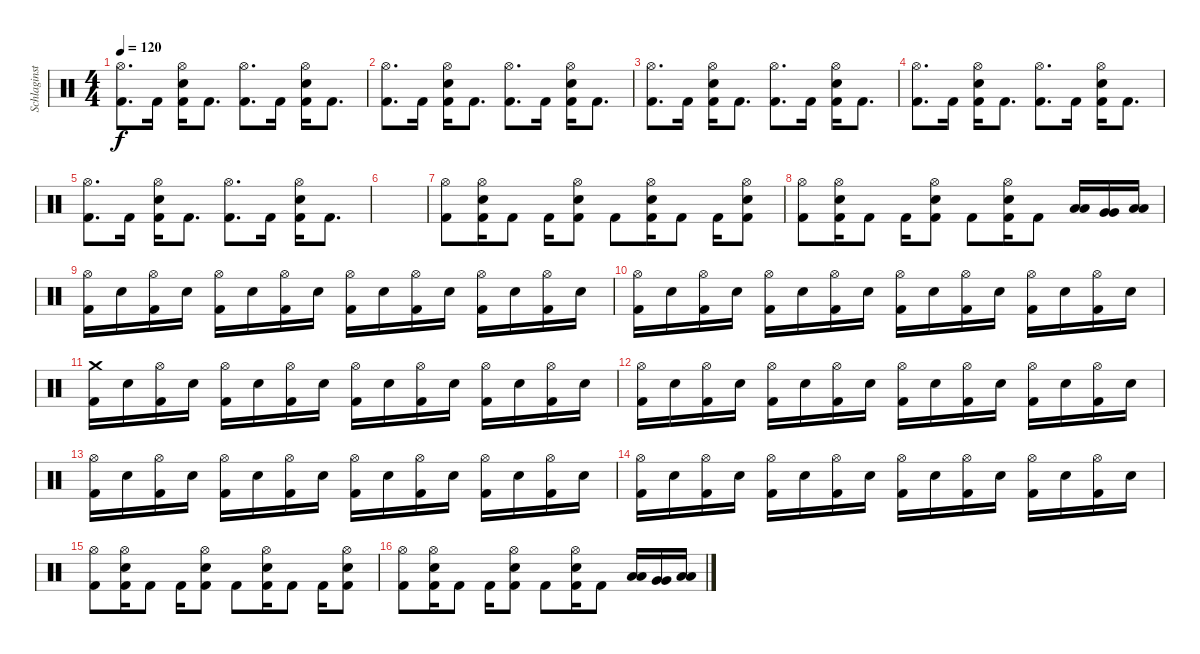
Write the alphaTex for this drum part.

\track ("Schlaginstrumente - Auswahl" "Schlaginst") {instrument percussion}
\staff {score}
\articulation defaults
\ts (4 4)
\tempo 120
\clef neutral
\ks c
("Hi-Hat (open)" "Kick (hit) 2").8{d dy f} "Kick (hit) 2".16 ("Hi-Hat (open)" "Electric Snare (hit)" "Kick (hit) 2").16 "Kick (hit) 2".8{d} ("Hi-Hat (open)" "Kick (hit) 2").8{d} "Kick (hit) 2".16 ("Hi-Hat (open)" "Electric Snare (hit)" "Kick (hit) 2").16 "Kick (hit) 2".8{d} |
("Hi-Hat (open)" "Kick (hit) 2").8{d} "Kick (hit) 2".16 ("Hi-Hat (open)" "Electric Snare (hit)" "Kick (hit) 2").16 "Kick (hit) 2".8{d} ("Hi-Hat (open)" "Kick (hit) 2").8{d} "Kick (hit) 2".16 ("Hi-Hat (open)" "Electric Snare (hit)" "Kick (hit) 2").16 "Kick (hit) 2".8{d} |
("Hi-Hat (open)" "Kick (hit) 2").8{d} "Kick (hit) 2".16 ("Hi-Hat (open)" "Electric Snare (hit)" "Kick (hit) 2").16 "Kick (hit) 2".8{d} ("Hi-Hat (open)" "Kick (hit) 2").8{d} "Kick (hit) 2".16 ("Hi-Hat (open)" "Electric Snare (hit)" "Kick (hit) 2").16 "Kick (hit) 2".8{d} |
("Hi-Hat (open)" "Kick (hit) 2").8{d} "Kick (hit) 2".16 ("Hi-Hat (open)" "Electric Snare (hit)" "Kick (hit) 2").16 "Kick (hit) 2".8{d} ("Hi-Hat (open)" "Kick (hit) 2").8{d} "Kick (hit) 2".16 ("Hi-Hat (open)" "Electric Snare (hit)" "Kick (hit) 2").16 "Kick (hit) 2".8{d} |
("Hi-Hat (open)" "Kick (hit) 2").8{d} "Kick (hit) 2".16 ("Hi-Hat (open)" "Electric Snare (hit)" "Kick (hit) 2").16 "Kick (hit) 2".8{d} ("Hi-Hat (open)" "Kick (hit) 2").8{d} "Kick (hit) 2".16 ("Hi-Hat (open)" "Electric Snare (hit)" "Kick (hit) 2").16 "Kick (hit) 2".8{d} |
|
("Hi-Hat (open)" "Kick (hit) 2").8 ("Hi-Hat (open)" "Electric Snare (hit)" "Kick (hit) 2").16 "Kick (hit) 2".8 "Kick (hit) 2".16 ("Hi-Hat (open)" "Electric Snare (hit)" "Kick (hit) 2").8 "Kick (hit) 2".8 ("Hi-Hat (open)" "Electric Snare (hit)" "Kick (hit) 2").16 "Kick (hit) 2".8 "Kick (hit) 2".16 ("Hi-Hat (open)" "Electric Snare (hit)" "Kick (hit) 2").8 |
("Hi-Hat (open)" "Kick (hit) 2").8 ("Hi-Hat (open)" "Electric Snare (hit)" "Kick (hit) 2").16 "Kick (hit) 2".8 "Kick (hit) 2".16 ("Hi-Hat (open)" "Electric Snare (hit)" "Kick (hit) 2").8 "Kick (hit) 2".8 ("Hi-Hat (open)" "Electric Snare (hit)" "Kick (hit) 2").16 "Kick (hit) 2".8 ("Low Tom (hit)" "Low Tom (hit)").16 ("Very Low Tom (hit)" "Very Low Tom (hit)").16 ("Low Floor Tom (hit)" "Low Floor Tom (hit)").16 |
("Hi-Hat (open)" "Kick (hit) 2").16 "Electric Snare (hit)".16 ("Hi-Hat (open)" "Kick (hit) 2").16 "Electric Snare (hit)".16 ("Hi-Hat (open)" "Kick (hit) 2").16 "Electric Snare (hit)".16 ("Hi-Hat (open)" "Kick (hit) 2").16 "Electric Snare (hit)".16 ("Hi-Hat (open)" "Kick (hit) 2").16 "Electric Snare (hit)".16 ("Hi-Hat (open)" "Kick (hit) 2").16 "Electric Snare (hit)".16 ("Hi-Hat (open)" "Kick (hit) 2").16 "Electric Snare (hit)".16 ("Hi-Hat (open)" "Kick (hit) 2").16 "Electric Snare (hit)".16 |
("Hi-Hat (open)" "Kick (hit) 2").16 "Electric Snare (hit)".16 ("Hi-Hat (open)" "Kick (hit) 2").16 "Electric Snare (hit)".16 ("Hi-Hat (open)" "Kick (hit) 2").16 "Electric Snare (hit)".16 ("Hi-Hat (open)" "Kick (hit) 2").16 "Electric Snare (hit)".16 ("Hi-Hat (open)" "Kick (hit) 2").16 "Electric Snare (hit)".16 ("Hi-Hat (open)" "Kick (hit) 2").16 "Electric Snare (hit)".16 ("Hi-Hat (open)" "Kick (hit) 2").16 "Electric Snare (hit)".16 ("Hi-Hat (open)" "Kick (hit) 2").16 "Electric Snare (hit)".16 |
("Crash medium (hit)" "Kick (hit) 2").16 "Electric Snare (hit)".16 ("Hi-Hat (open)" "Kick (hit) 2").16 "Electric Snare (hit)".16 ("Hi-Hat (open)" "Kick (hit) 2").16 "Electric Snare (hit)".16 ("Hi-Hat (open)" "Kick (hit) 2").16 "Electric Snare (hit)".16 ("Hi-Hat (open)" "Kick (hit) 2").16 "Electric Snare (hit)".16 ("Hi-Hat (open)" "Kick (hit) 2").16 "Electric Snare (hit)".16 ("Hi-Hat (open)" "Kick (hit) 2").16 "Electric Snare (hit)".16 ("Hi-Hat (open)" "Kick (hit) 2").16 "Electric Snare (hit)".16 |
("Hi-Hat (open)" "Kick (hit) 2").16 "Electric Snare (hit)".16 ("Hi-Hat (open)" "Kick (hit) 2").16 "Electric Snare (hit)".16 ("Hi-Hat (open)" "Kick (hit) 2").16 "Electric Snare (hit)".16 ("Hi-Hat (open)" "Kick (hit) 2").16 "Electric Snare (hit)".16 ("Hi-Hat (open)" "Kick (hit) 2").16 "Electric Snare (hit)".16 ("Hi-Hat (open)" "Kick (hit) 2").16 "Electric Snare (hit)".16 ("Hi-Hat (open)" "Kick (hit) 2").16 "Electric Snare (hit)".16 ("Hi-Hat (open)" "Kick (hit) 2").16 "Electric Snare (hit)".16 |
("Hi-Hat (open)" "Kick (hit) 2").16 "Electric Snare (hit)".16 ("Hi-Hat (open)" "Kick (hit) 2").16 "Electric Snare (hit)".16 ("Hi-Hat (open)" "Kick (hit) 2").16 "Electric Snare (hit)".16 ("Hi-Hat (open)" "Kick (hit) 2").16 "Electric Snare (hit)".16 ("Hi-Hat (open)" "Kick (hit) 2").16 "Electric Snare (hit)".16 ("Hi-Hat (open)" "Kick (hit) 2").16 "Electric Snare (hit)".16 ("Hi-Hat (open)" "Kick (hit) 2").16 "Electric Snare (hit)".16 ("Hi-Hat (open)" "Kick (hit) 2").16 "Electric Snare (hit)".16 |
("Hi-Hat (open)" "Kick (hit) 2").16 "Electric Snare (hit)".16 ("Hi-Hat (open)" "Kick (hit) 2").16 "Electric Snare (hit)".16 ("Hi-Hat (open)" "Kick (hit) 2").16 "Electric Snare (hit)".16 ("Hi-Hat (open)" "Kick (hit) 2").16 "Electric Snare (hit)".16 ("Hi-Hat (open)" "Kick (hit) 2").16 "Electric Snare (hit)".16 ("Hi-Hat (open)" "Kick (hit) 2").16 "Electric Snare (hit)".16 ("Hi-Hat (open)" "Kick (hit) 2").16 "Electric Snare (hit)".16 ("Hi-Hat (open)" "Kick (hit) 2").16 "Electric Snare (hit)".16 |
("Hi-Hat (open)" "Kick (hit) 2").8 ("Hi-Hat (open)" "Electric Snare (hit)" "Kick (hit) 2").16 "Kick (hit) 2".8 "Kick (hit) 2".16 ("Hi-Hat (open)" "Electric Snare (hit)" "Kick (hit) 2").8 "Kick (hit) 2".8 ("Hi-Hat (open)" "Electric Snare (hit)" "Kick (hit) 2").16 "Kick (hit) 2".8 "Kick (hit) 2".16 ("Hi-Hat (open)" "Electric Snare (hit)" "Kick (hit) 2").8 |
("Hi-Hat (open)" "Kick (hit) 2").8 ("Hi-Hat (open)" "Electric Snare (hit)" "Kick (hit) 2").16 "Kick (hit) 2".8 "Kick (hit) 2".16 ("Hi-Hat (open)" "Electric Snare (hit)" "Kick (hit) 2").8 "Kick (hit) 2".8 ("Hi-Hat (open)" "Electric Snare (hit)" "Kick (hit) 2").16 "Kick (hit) 2".8 ("Low Tom (hit)" "Low Tom (hit)").16 ("Very Low Tom (hit)" "Very Low Tom (hit)").16 ("Low Floor Tom (hit)" "Low Floor Tom (hit)").16
